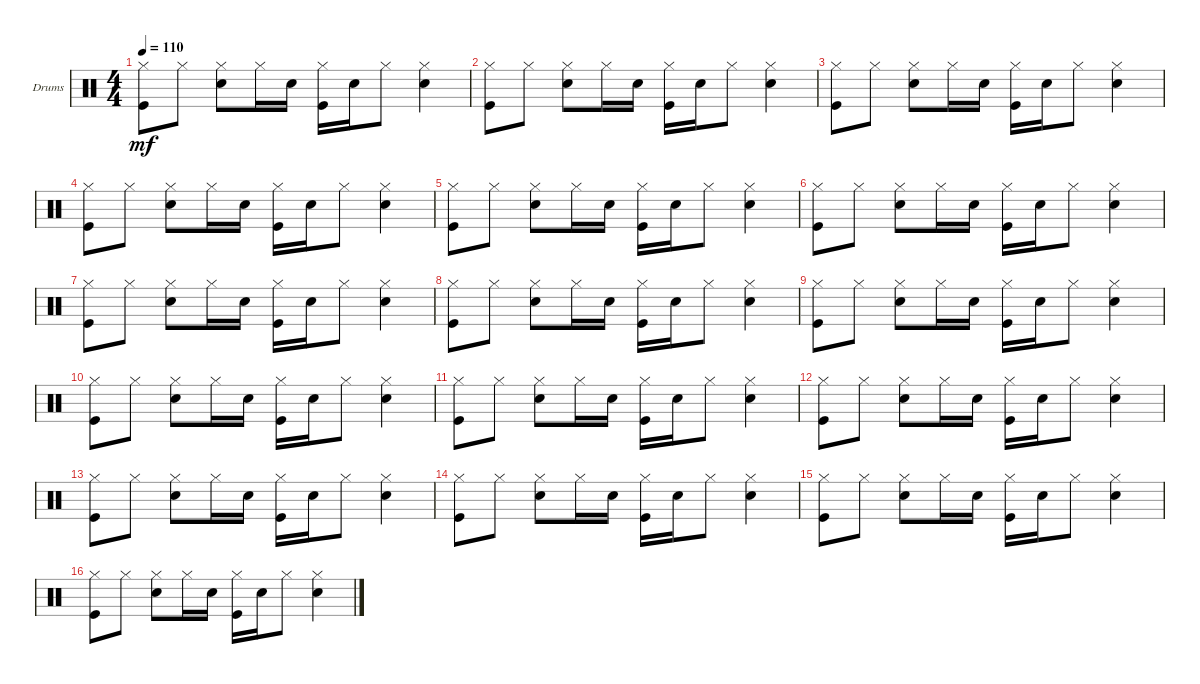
\bracketExtendMode groupsimilarinstruments
\firstSystemTrackNameOrientation horizontal
\otherSystemsTrackNameOrientation horizontal
\track ("Drumkit" "Drums") {instrument percussion}
\staff {score}
\articulation defaults
\ts (4 4)
\tempo 110
\clef neutral
\ks c
("Hi-Hat (closed)" "Kick (hit)").8{dy mf} "Hi-Hat (closed)".8 ("Hi-Hat (closed)" "Snare (hit) 2").8 "Hi-Hat (closed)".16 "Snare (hit) 2".16 ("Hi-Hat (closed)" "Kick (hit)").16 "Snare (hit) 2".16 "Hi-Hat (closed)".8 ("Hi-Hat (closed)" "Snare (hit) 2").4 |
("Hi-Hat (closed)" "Kick (hit)").8 "Hi-Hat (closed)".8 ("Hi-Hat (closed)" "Snare (hit) 2").8 "Hi-Hat (closed)".16 "Snare (hit) 2".16 ("Hi-Hat (closed)" "Kick (hit)").16 "Snare (hit) 2".16 "Hi-Hat (closed)".8 ("Hi-Hat (closed)" "Snare (hit) 2").4 |
("Hi-Hat (closed)" "Kick (hit)").8 "Hi-Hat (closed)".8 ("Hi-Hat (closed)" "Snare (hit) 2").8 "Hi-Hat (closed)".16 "Snare (hit) 2".16 ("Hi-Hat (closed)" "Kick (hit)").16 "Snare (hit) 2".16 "Hi-Hat (closed)".8 ("Hi-Hat (closed)" "Snare (hit) 2").4 |
("Hi-Hat (closed)" "Kick (hit)").8 "Hi-Hat (closed)".8 ("Hi-Hat (closed)" "Snare (hit) 2").8 "Hi-Hat (closed)".16 "Snare (hit) 2".16 ("Hi-Hat (closed)" "Kick (hit)").16 "Snare (hit) 2".16 "Hi-Hat (closed)".8 ("Hi-Hat (closed)" "Snare (hit) 2").4 |
("Hi-Hat (closed)" "Kick (hit)").8 "Hi-Hat (closed)".8 ("Hi-Hat (closed)" "Snare (hit) 2").8 "Hi-Hat (closed)".16 "Snare (hit) 2".16 ("Hi-Hat (closed)" "Kick (hit)").16 "Snare (hit) 2".16 "Hi-Hat (closed)".8 ("Hi-Hat (closed)" "Snare (hit) 2").4 |
("Hi-Hat (closed)" "Kick (hit)").8 "Hi-Hat (closed)".8 ("Hi-Hat (closed)" "Snare (hit) 2").8 "Hi-Hat (closed)".16 "Snare (hit) 2".16 ("Hi-Hat (closed)" "Kick (hit)").16 "Snare (hit) 2".16 "Hi-Hat (closed)".8 ("Hi-Hat (closed)" "Snare (hit) 2").4 |
("Hi-Hat (closed)" "Kick (hit)").8 "Hi-Hat (closed)".8 ("Hi-Hat (closed)" "Snare (hit) 2").8 "Hi-Hat (closed)".16 "Snare (hit) 2".16 ("Hi-Hat (closed)" "Kick (hit)").16 "Snare (hit) 2".16 "Hi-Hat (closed)".8 ("Hi-Hat (closed)" "Snare (hit) 2").4 |
("Hi-Hat (closed)" "Kick (hit)").8 "Hi-Hat (closed)".8 ("Hi-Hat (closed)" "Snare (hit) 2").8 "Hi-Hat (closed)".16 "Snare (hit) 2".16 ("Hi-Hat (closed)" "Kick (hit)").16 "Snare (hit) 2".16 "Hi-Hat (closed)".8 ("Hi-Hat (closed)" "Snare (hit) 2").4 |
("Hi-Hat (closed)" "Kick (hit)").8 "Hi-Hat (closed)".8 ("Hi-Hat (closed)" "Snare (hit) 2").8 "Hi-Hat (closed)".16 "Snare (hit) 2".16 ("Hi-Hat (closed)" "Kick (hit)").16 "Snare (hit) 2".16 "Hi-Hat (closed)".8 ("Hi-Hat (closed)" "Snare (hit) 2").4 |
("Hi-Hat (closed)" "Kick (hit)").8 "Hi-Hat (closed)".8 ("Hi-Hat (closed)" "Snare (hit) 2").8 "Hi-Hat (closed)".16 "Snare (hit) 2".16 ("Hi-Hat (closed)" "Kick (hit)").16 "Snare (hit) 2".16 "Hi-Hat (closed)".8 ("Hi-Hat (closed)" "Snare (hit) 2").4 |
("Hi-Hat (closed)" "Kick (hit)").8 "Hi-Hat (closed)".8 ("Hi-Hat (closed)" "Snare (hit) 2").8 "Hi-Hat (closed)".16 "Snare (hit) 2".16 ("Hi-Hat (closed)" "Kick (hit)").16 "Snare (hit) 2".16 "Hi-Hat (closed)".8 ("Hi-Hat (closed)" "Snare (hit) 2").4 |
("Hi-Hat (closed)" "Kick (hit)").8 "Hi-Hat (closed)".8 ("Hi-Hat (closed)" "Snare (hit) 2").8 "Hi-Hat (closed)".16 "Snare (hit) 2".16 ("Hi-Hat (closed)" "Kick (hit)").16 "Snare (hit) 2".16 "Hi-Hat (closed)".8 ("Hi-Hat (closed)" "Snare (hit) 2").4 |
("Hi-Hat (closed)" "Kick (hit)").8 "Hi-Hat (closed)".8 ("Hi-Hat (closed)" "Snare (hit) 2").8 "Hi-Hat (closed)".16 "Snare (hit) 2".16 ("Hi-Hat (closed)" "Kick (hit)").16 "Snare (hit) 2".16 "Hi-Hat (closed)".8 ("Hi-Hat (closed)" "Snare (hit) 2").4 |
("Hi-Hat (closed)" "Kick (hit)").8 "Hi-Hat (closed)".8 ("Hi-Hat (closed)" "Snare (hit) 2").8 "Hi-Hat (closed)".16 "Snare (hit) 2".16 ("Hi-Hat (closed)" "Kick (hit)").16 "Snare (hit) 2".16 "Hi-Hat (closed)".8 ("Hi-Hat (closed)" "Snare (hit) 2").4 |
("Hi-Hat (closed)" "Kick (hit)").8 "Hi-Hat (closed)".8 ("Hi-Hat (closed)" "Snare (hit) 2").8 "Hi-Hat (closed)".16 "Snare (hit) 2".16 ("Hi-Hat (closed)" "Kick (hit)").16 "Snare (hit) 2".16 "Hi-Hat (closed)".8 ("Hi-Hat (closed)" "Snare (hit) 2").4 |
("Hi-Hat (closed)" "Kick (hit)").8 "Hi-Hat (closed)".8 ("Hi-Hat (closed)" "Snare (hit) 2").8 "Hi-Hat (closed)".16 "Snare (hit) 2".16 ("Hi-Hat (closed)" "Kick (hit)").16 "Snare (hit) 2".16 "Hi-Hat (closed)".8 ("Hi-Hat (closed)" "Snare (hit) 2").4
